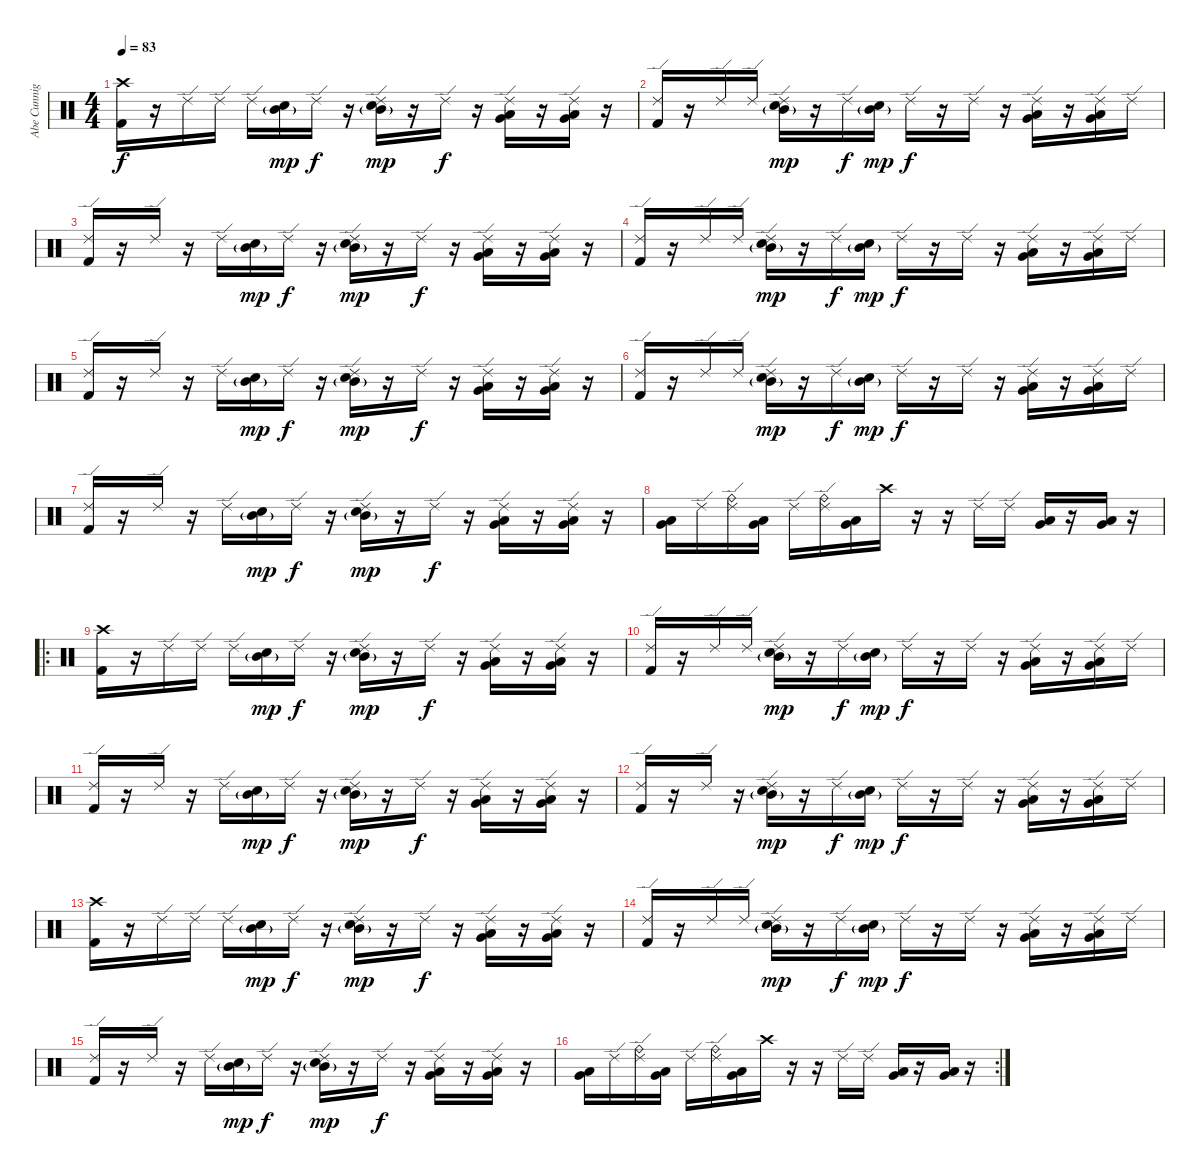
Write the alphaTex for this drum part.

\track ("Abe Cunnigham" "Abe Cunnig") {instrument percussion}
\staff {score}
\articulation defaults
\ts (4 4)
\tempo 83
\clef neutral
\ks c
("Crash high (hit)" "Kick (hit) 2").16{dy f} r.16 "Ride (edge) 2".16 "Ride (edge) 2".16 "Ride (edge) 2".16 ("Mid Tom (hit)"{g} "Electric Snare (hit)").16{dy mp} "Ride (edge) 2".16{dy f} r.16 ("Ride (edge) 2" "Mid Tom (hit)"{g} "Electric Snare (hit)").16{dy mp} r.16 "Ride (edge) 2".16{dy f} r.16 ("Ride (edge) 2" "Very Low Tom (hit)" "Low Tom (hit)").16 r.16 ("Ride (edge) 2" "Very Low Tom (hit)" "Low Tom (hit)").16 r.16 |
("Ride (edge) 2" "Kick (hit) 2").16 r.16 "Ride (edge) 2".16 "Ride (edge) 2".16 ("Ride (edge) 2" "Mid Tom (hit)"{g} "Electric Snare (hit)").16{dy mp} r.16 "Ride (edge) 2".16{dy f} ("Mid Tom (hit)"{g} "Electric Snare (hit)").16{dy mp} "Ride (edge) 2".16{dy f} r.16 "Ride (edge) 2".16 r.16 ("Ride (edge) 2" "Very Low Tom (hit)" "Low Tom (hit)").16 r.16 ("Ride (edge) 2" "Very Low Tom (hit)" "Low Tom (hit)").16 "Ride (edge) 2".16 |
("Ride (edge) 2" "Kick (hit) 2").16 r.16 "Ride (edge) 2".16 r.16 "Ride (edge) 2".16 ("Mid Tom (hit)"{g} "Electric Snare (hit)").16{dy mp} "Ride (edge) 2".16{dy f} r.16 ("Ride (edge) 2" "Mid Tom (hit)"{g} "Electric Snare (hit)").16{dy mp} r.16 "Ride (edge) 2".16{dy f} r.16 ("Ride (edge) 2" "Very Low Tom (hit)" "Low Tom (hit)").16 r.16 ("Ride (edge) 2" "Very Low Tom (hit)" "Low Tom (hit)").16 r.16 |
("Ride (edge) 2" "Kick (hit) 2").16 r.16 "Ride (edge) 2".16 "Ride (edge) 2".16 ("Ride (edge) 2" "Mid Tom (hit)"{g} "Electric Snare (hit)").16{dy mp} r.16 "Ride (edge) 2".16{dy f} ("Mid Tom (hit)"{g} "Electric Snare (hit)").16{dy mp} "Ride (edge) 2".16{dy f} r.16 "Ride (edge) 2".16 r.16 ("Ride (edge) 2" "Very Low Tom (hit)" "Low Tom (hit)").16 r.16 ("Ride (edge) 2" "Very Low Tom (hit)" "Low Tom (hit)").16 "Ride (edge) 2".16 |
("Ride (edge) 2" "Kick (hit) 2").16 r.16 "Ride (edge) 2".16 r.16 "Ride (edge) 2".16 ("Mid Tom (hit)"{g} "Electric Snare (hit)").16{dy mp} "Ride (edge) 2".16{dy f} r.16 ("Ride (edge) 2" "Mid Tom (hit)"{g} "Electric Snare (hit)").16{dy mp} r.16 "Ride (edge) 2".16{dy f} r.16 ("Ride (edge) 2" "Very Low Tom (hit)" "Low Tom (hit)").16 r.16 ("Ride (edge) 2" "Very Low Tom (hit)" "Low Tom (hit)").16 r.16 |
("Ride (edge) 2" "Kick (hit) 2").16 r.16 "Ride (edge) 2".16 "Ride (edge) 2".16 ("Ride (edge) 2" "Mid Tom (hit)"{g} "Electric Snare (hit)").16{dy mp} r.16 "Ride (edge) 2".16{dy f} ("Mid Tom (hit)"{g} "Electric Snare (hit)").16{dy mp} "Ride (edge) 2".16{dy f} r.16 "Ride (edge) 2".16 r.16 ("Ride (edge) 2" "Very Low Tom (hit)" "Low Tom (hit)").16 r.16 ("Ride (edge) 2" "Very Low Tom (hit)" "Low Tom (hit)").16 "Ride (edge) 2".16 |
("Ride (edge) 2" "Kick (hit) 2").16 r.16 "Ride (edge) 2".16 r.16 "Ride (edge) 2".16 ("Mid Tom (hit)"{g} "Electric Snare (hit)").16{dy mp} "Ride (edge) 2".16{dy f} r.16 ("Ride (edge) 2" "Mid Tom (hit)"{g} "Electric Snare (hit)").16{dy mp} r.16 "Ride (edge) 2".16{dy f} r.16 ("Ride (edge) 2" "Very Low Tom (hit)" "Low Tom (hit)").16 r.16 ("Ride (edge) 2" "Very Low Tom (hit)" "Low Tom (hit)").16 r.16 |
("Very Low Tom (hit)" "Low Tom (hit)").16 "Ride (edge) 2".16 ("Ride (bell)" "Ride (edge) 2").16 ("Very Low Tom (hit)" "Low Tom (hit)").16 "Ride (edge) 2".16 ("Ride (bell)" "Ride (edge) 2").16 ("Very Low Tom (hit)" "Low Tom (hit)").16 "Crash high (hit)".16 r.16 r.16 "Ride (edge) 2".16 "Ride (edge) 2".16 ("Very Low Tom (hit)" "Low Tom (hit)").16 r.16 ("Very Low Tom (hit)" "Low Tom (hit)").16 r.16 |
\ro
("Crash high (hit)" "Kick (hit) 2").16 r.16 "Ride (edge) 2".16 "Ride (edge) 2".16 "Ride (edge) 2".16 ("Mid Tom (hit)"{g} "Electric Snare (hit)").16{dy mp} "Ride (edge) 2".16{dy f} r.16 ("Ride (edge) 2" "Mid Tom (hit)"{g} "Electric Snare (hit)").16{dy mp} r.16 "Ride (edge) 2".16{dy f} r.16 ("Ride (edge) 2" "Very Low Tom (hit)" "Low Tom (hit)").16 r.16 ("Ride (edge) 2" "Very Low Tom (hit)" "Low Tom (hit)").16 r.16 |
("Ride (edge) 2" "Kick (hit) 2").16 r.16 "Ride (edge) 2".16 "Ride (edge) 2".16 ("Ride (edge) 2" "Mid Tom (hit)"{g} "Electric Snare (hit)").16{dy mp} r.16 "Ride (edge) 2".16{dy f} ("Mid Tom (hit)"{g} "Electric Snare (hit)").16{dy mp} "Ride (edge) 2".16{dy f} r.16 "Ride (edge) 2".16 r.16 ("Ride (edge) 2" "Very Low Tom (hit)" "Low Tom (hit)").16 r.16 ("Ride (edge) 2" "Very Low Tom (hit)" "Low Tom (hit)").16 "Ride (edge) 2".16 |
("Ride (edge) 2" "Kick (hit) 2").16 r.16 "Ride (edge) 2".16 r.16 "Ride (edge) 2".16 ("Mid Tom (hit)"{g} "Electric Snare (hit)").16{dy mp} "Ride (edge) 2".16{dy f} r.16 ("Ride (edge) 2" "Mid Tom (hit)"{g} "Electric Snare (hit)").16{dy mp} r.16 "Ride (edge) 2".16{dy f} r.16 ("Ride (edge) 2" "Very Low Tom (hit)" "Low Tom (hit)").16 r.16 ("Ride (edge) 2" "Very Low Tom (hit)" "Low Tom (hit)").16 r.16 |
("Ride (edge) 2" "Kick (hit) 2").16 r.16 "Ride (edge) 2".16 r.16 ("Ride (edge) 2" "Mid Tom (hit)"{g} "Electric Snare (hit)").16{dy mp} r.16 "Ride (edge) 2".16{dy f} ("Mid Tom (hit)"{g} "Electric Snare (hit)").16{dy mp} "Ride (edge) 2".16{dy f} r.16 "Ride (edge) 2".16 r.16 ("Ride (edge) 2" "Very Low Tom (hit)" "Low Tom (hit)").16 r.16 ("Ride (edge) 2" "Very Low Tom (hit)" "Low Tom (hit)").16 "Ride (edge) 2".16 |
("Crash high (hit)" "Kick (hit) 2").16 r.16 "Ride (edge) 2".16 "Ride (edge) 2".16 "Ride (edge) 2".16 ("Mid Tom (hit)"{g} "Electric Snare (hit)").16{dy mp} "Ride (edge) 2".16{dy f} r.16 ("Ride (edge) 2" "Mid Tom (hit)"{g} "Electric Snare (hit)").16{dy mp} r.16 "Ride (edge) 2".16{dy f} r.16 ("Ride (edge) 2" "Very Low Tom (hit)" "Low Tom (hit)").16 r.16 ("Ride (edge) 2" "Very Low Tom (hit)" "Low Tom (hit)").16 r.16 |
("Ride (edge) 2" "Kick (hit) 2").16 r.16 "Ride (edge) 2".16 "Ride (edge) 2".16 ("Ride (edge) 2" "Mid Tom (hit)"{g} "Electric Snare (hit)").16{dy mp} r.16 "Ride (edge) 2".16{dy f} ("Mid Tom (hit)"{g} "Electric Snare (hit)").16{dy mp} "Ride (edge) 2".16{dy f} r.16 "Ride (edge) 2".16 r.16 ("Ride (edge) 2" "Very Low Tom (hit)" "Low Tom (hit)").16 r.16 ("Ride (edge) 2" "Very Low Tom (hit)" "Low Tom (hit)").16 "Ride (edge) 2".16 |
("Ride (edge) 2" "Kick (hit) 2").16 r.16 "Ride (edge) 2".16 r.16 "Ride (edge) 2".16 ("Mid Tom (hit)"{g} "Electric Snare (hit)").16{dy mp} "Ride (edge) 2".16{dy f} r.16 ("Ride (edge) 2" "Mid Tom (hit)"{g} "Electric Snare (hit)").16{dy mp} r.16 "Ride (edge) 2".16{dy f} r.16 ("Ride (edge) 2" "Very Low Tom (hit)" "Low Tom (hit)").16 r.16 ("Ride (edge) 2" "Very Low Tom (hit)" "Low Tom (hit)").16 r.16 |
\rc 2
("Very Low Tom (hit)" "Low Tom (hit)").16 "Ride (edge) 2".16 ("Ride (bell)" "Ride (edge) 2").16 ("Very Low Tom (hit)" "Low Tom (hit)").16 "Ride (edge) 2".16 ("Ride (bell)" "Ride (edge) 2").16 ("Very Low Tom (hit)" "Low Tom (hit)").16 "Crash high (hit)".16 r.16 r.16 "Ride (edge) 2".16 "Ride (edge) 2".16 ("Very Low Tom (hit)" "Low Tom (hit)").16 r.16 ("Very Low Tom (hit)" "Low Tom (hit)").16 r.16
